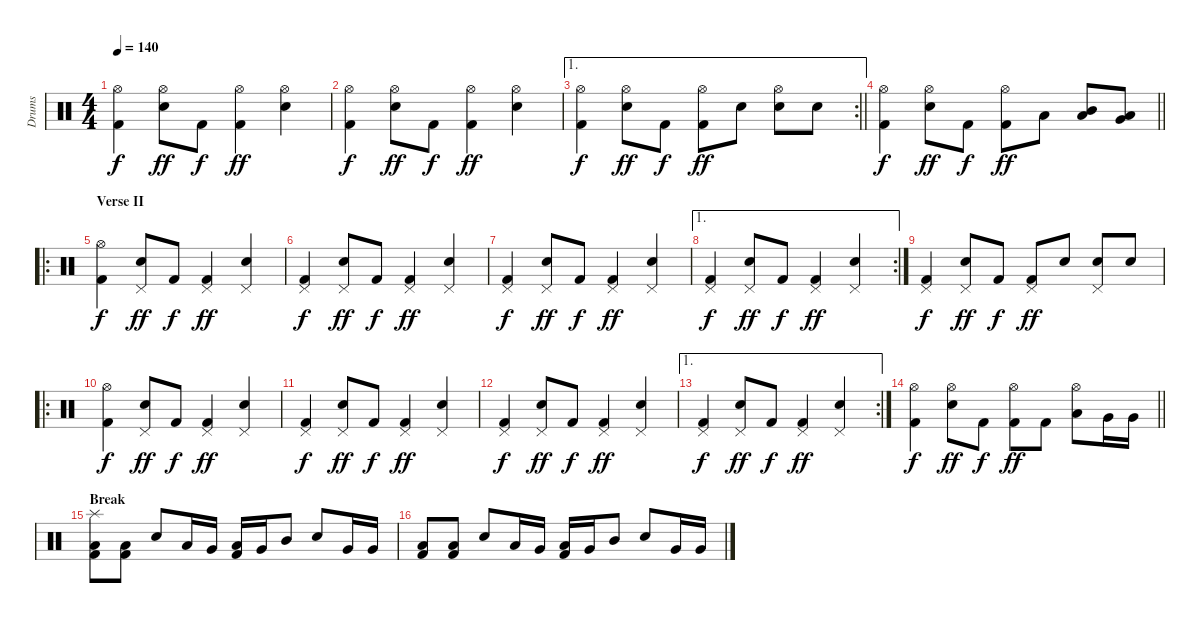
\track ("Drums" "Drums") {instrument percussion}
\staff {score}
\articulation defaults
\ts (4 4)
\tempo 140
\clef neutral
\ks c
("Hi-Hat (open)" "Kick (hit) 2").4{dy f} ("Hi-Hat (open)" "Snare (hit) 2").8{dy ff} "Kick (hit) 2".8{dy f} ("Hi-Hat (open)" "Kick (hit) 2").4{dy ff} ("Hi-Hat (open)" "Snare (hit) 2").4 |
("Hi-Hat (open)" "Kick (hit) 2").4{dy f} ("Hi-Hat (open)" "Snare (hit) 2").8{dy ff} "Kick (hit) 2".8{dy f} ("Hi-Hat (open)" "Kick (hit) 2").4{dy ff} ("Hi-Hat (open)" "Snare (hit) 2").4 |
\ae 1
\rc 2
\barLineRight lightlight
("Hi-Hat (open)" "Kick (hit) 2").4{dy f} ("Hi-Hat (open)" "Snare (hit) 2").8{dy ff} "Kick (hit) 2".8{dy f} ("Hi-Hat (open)" "Kick (hit) 2").8{dy ff} "Snare (hit) 2".8 ("Hi-Hat (open)" "Snare (hit) 2").8 "Snare (hit) 2".8 |
\barLineRight lightlight
("Hi-Hat (open)" "Kick (hit) 2").4{dy f} ("Hi-Hat (open)" "Snare (hit) 2").8{dy ff} "Kick (hit) 2".8{dy f} ("Hi-Hat (open)" "Kick (hit) 2").8{dy ff} "Low Floor Tom (hit)".8 ("Mid Tom (hit)" "Low Tom (hit)").8 ("Low Tom (hit)" "Very Low Tom (hit)").8 |
\ro
\section ("" "Verse II")
("Hi-Hat (open)" "Kick (hit) 2").4{dy f} ("Pedal Hi-Hat (hit)" "Snare (hit) 2").8{dy ff} "Kick (hit) 2".8{dy f} ("Pedal Hi-Hat (hit)" "Kick (hit) 2").4{dy ff} ("Pedal Hi-Hat (hit)" "Snare (hit) 2").4 |
("Pedal Hi-Hat (hit)" "Kick (hit) 2").4{dy f} ("Pedal Hi-Hat (hit)" "Snare (hit) 2").8{dy ff} "Kick (hit) 2".8{dy f} ("Pedal Hi-Hat (hit)" "Kick (hit) 2").4{dy ff} ("Pedal Hi-Hat (hit)" "Snare (hit) 2").4 |
("Pedal Hi-Hat (hit)" "Kick (hit) 2").4{dy f} ("Pedal Hi-Hat (hit)" "Snare (hit) 2").8{dy ff} "Kick (hit) 2".8{dy f} ("Pedal Hi-Hat (hit)" "Kick (hit) 2").4{dy ff} ("Pedal Hi-Hat (hit)" "Snare (hit) 2").4 |
\ae 1
\rc 2
("Pedal Hi-Hat (hit)" "Kick (hit) 2").4{dy f} ("Pedal Hi-Hat (hit)" "Snare (hit) 2").8{dy ff} "Kick (hit) 2".8{dy f} ("Pedal Hi-Hat (hit)" "Kick (hit) 2").4{dy ff} ("Pedal Hi-Hat (hit)" "Snare (hit) 2").4 |
("Pedal Hi-Hat (hit)" "Kick (hit) 2").4{dy f} ("Pedal Hi-Hat (hit)" "Snare (hit) 2").8{dy ff} "Kick (hit) 2".8{dy f} ("Pedal Hi-Hat (hit)" "Kick (hit) 2").8{dy ff} "Snare (hit) 2".8 ("Pedal Hi-Hat (hit)" "Snare (hit) 2").8 "Snare (hit) 2".8 |
\ro
("Hi-Hat (open)" "Kick (hit) 2").4{dy f} ("Pedal Hi-Hat (hit)" "Snare (hit) 2").8{dy ff} "Kick (hit) 2".8{dy f} ("Pedal Hi-Hat (hit)" "Kick (hit) 2").4{dy ff} ("Pedal Hi-Hat (hit)" "Snare (hit) 2").4 |
("Pedal Hi-Hat (hit)" "Kick (hit) 2").4{dy f} ("Pedal Hi-Hat (hit)" "Snare (hit) 2").8{dy ff} "Kick (hit) 2".8{dy f} ("Pedal Hi-Hat (hit)" "Kick (hit) 2").4{dy ff} ("Pedal Hi-Hat (hit)" "Snare (hit) 2").4 |
("Pedal Hi-Hat (hit)" "Kick (hit) 2").4{dy f} ("Pedal Hi-Hat (hit)" "Snare (hit) 2").8{dy ff} "Kick (hit) 2".8{dy f} ("Pedal Hi-Hat (hit)" "Kick (hit) 2").4{dy ff} ("Pedal Hi-Hat (hit)" "Snare (hit) 2").4 |
\ae 1
\rc 2
("Pedal Hi-Hat (hit)" "Kick (hit) 2").4{dy f} ("Pedal Hi-Hat (hit)" "Snare (hit) 2").8{dy ff} "Kick (hit) 2".8{dy f} ("Pedal Hi-Hat (hit)" "Kick (hit) 2").4{dy ff} ("Pedal Hi-Hat (hit)" "Snare (hit) 2").4 |
\barLineRight lightlight
("Hi-Hat (open)" "Kick (hit) 2").4{dy f} ("Hi-Hat (open)" "Snare (hit) 2").8{dy ff} "Kick (hit) 2".8{dy f} ("Hi-Hat (open)" "Kick (hit) 2").8{dy ff} "Kick (hit) 2".8 ("Hi-Hat (open)" "Low Tom (hit)").8 "Very Low Tom (hit)".16 "Very Low Tom (hit)".16 |
\section ("" "Break")
("Splash (hit)" "Low Floor Tom (hit)" "Kick (hit) 2").8 ("Low Floor Tom (hit)" "Kick (hit) 2").8 "Snare (hit) 2".8 "Low Floor Tom (hit)".16 "Very Low Tom (hit)".16 ("Low Tom (hit)" "Kick (hit) 2").16 "Very Low Tom (hit)".16 "Mid Tom (hit)".8 "Snare (hit) 2".8 "Very Low Tom (hit)".16 "Very Low Tom (hit)".16 |
("Low Floor Tom (hit)" "Kick (hit) 2").8 ("Low Floor Tom (hit)" "Kick (hit) 2").8 "Snare (hit) 2".8 "Low Floor Tom (hit)".16 "Very Low Tom (hit)".16 ("Low Tom (hit)" "Kick (hit) 2").16 "Very Low Tom (hit)".16 "Mid Tom (hit)".8 "Snare (hit) 2".8 "Very Low Tom (hit)".16 "Very Low Tom (hit)".16
